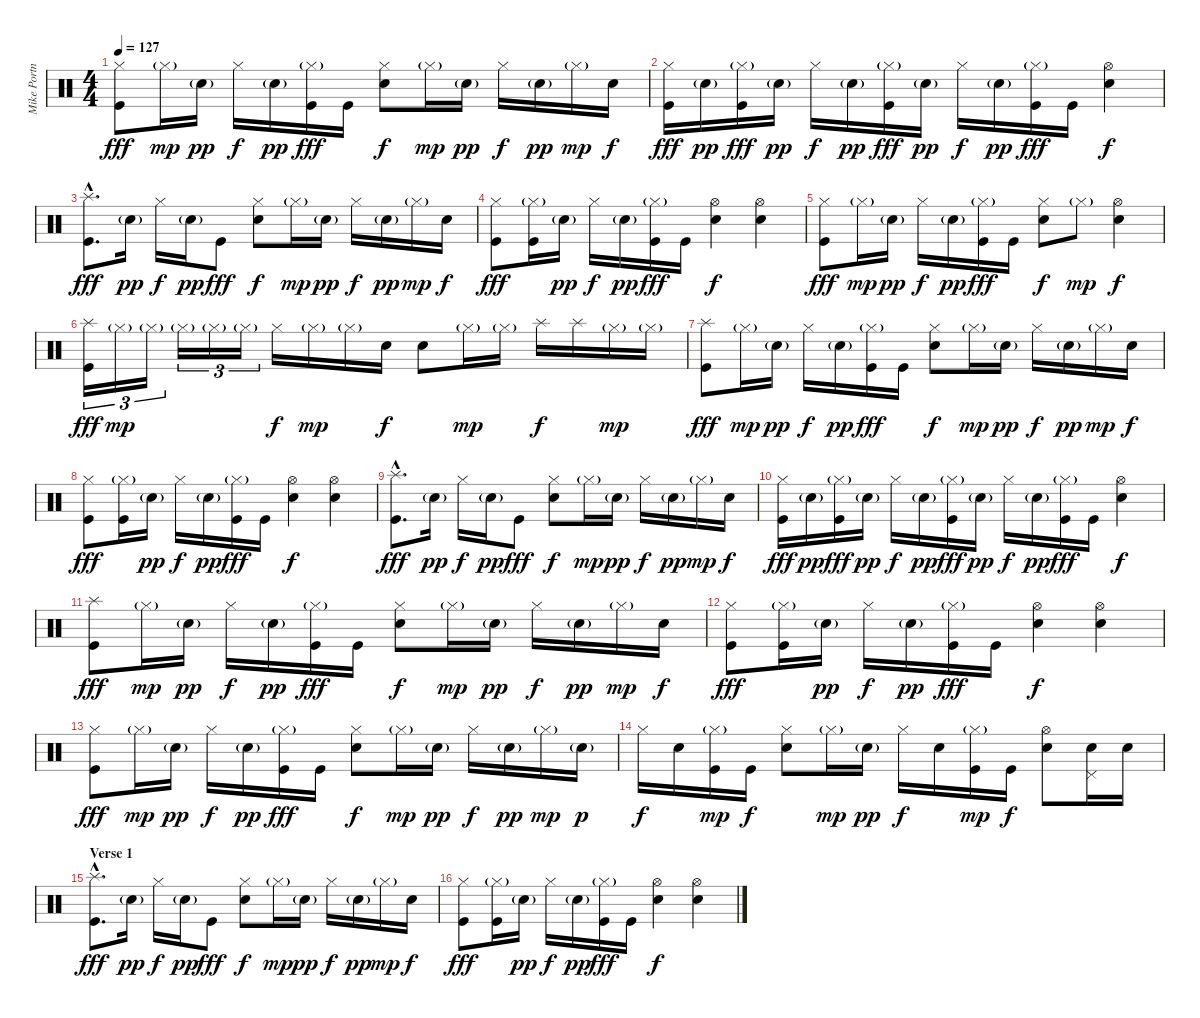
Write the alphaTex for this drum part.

\track ("Mike Portnoy" "Mike Portn") {instrument percussion}
\staff {score}
\articulation defaults
\ts (4 4)
\tempo 127
\clef neutral
\ks c
("Hi-Hat (closed)" "Kick (hit)").8{dy fff} "Hi-Hat (closed)"{g}.16{dy mp} "Electric Snare (hit)"{g}.16{dy pp} "Hi-Hat (closed)".16{dy f} "Electric Snare (hit)"{g}.16{dy pp} ("Hi-Hat (closed)"{g} "Kick (hit)").16{dy fff} "Kick (hit)".16 ("Hi-Hat (closed)" "Electric Snare (hit)").8{dy f} "Hi-Hat (closed)"{g}.16{dy mp} "Electric Snare (hit)"{g}.16{dy pp} "Hi-Hat (closed)".16{dy f} "Electric Snare (hit)"{g}.16{dy pp} "Hi-Hat (closed)"{g}.16{dy mp} "Electric Snare (hit)".16{dy f} |
("Hi-Hat (closed)" "Kick (hit)").16{dy fff} "Electric Snare (hit)"{g}.16{dy pp} ("Hi-Hat (closed)"{g} "Kick (hit)").16{dy fff} "Electric Snare (hit)"{g}.16{dy pp} "Hi-Hat (closed)".16{dy f} "Electric Snare (hit)"{g}.16{dy pp} ("Hi-Hat (closed)"{g} "Kick (hit)").16{dy fff} "Electric Snare (hit)"{g}.16{dy pp} "Hi-Hat (closed)".16{dy f} "Electric Snare (hit)"{g}.16{dy pp} ("Hi-Hat (closed)"{g} "Kick (hit)").16{dy fff} "Kick (hit)".16 ("Hi-Hat (open)" "Electric Snare (hit)").4{dy f} |
("Splash (hit)"{hac} "Kick (hit)"{hac}).8{d dy fff} "Electric Snare (hit)"{g}.16{dy pp} "Hi-Hat (closed)".16{dy f} "Electric Snare (hit)"{g}.16{dy pp} "Kick (hit)".8{dy fff} ("Hi-Hat (closed)" "Electric Snare (hit)").8{dy f} "Hi-Hat (closed)"{g}.16{dy mp} "Electric Snare (hit)"{g}.16{dy pp} "Hi-Hat (closed)".16{dy f} "Electric Snare (hit)"{g}.16{dy pp} "Hi-Hat (closed)"{g}.16{dy mp} "Electric Snare (hit)".16{dy f} |
("Hi-Hat (closed)" "Kick (hit)").8{dy fff} ("Hi-Hat (closed)"{g} "Kick (hit)").16 "Electric Snare (hit)"{g}.16{dy pp} "Hi-Hat (closed)".16{dy f} "Electric Snare (hit)"{g}.16{dy pp} ("Hi-Hat (closed)"{g} "Kick (hit)").16{dy fff} "Kick (hit)".16 ("Hi-Hat (open)" "Electric Snare (hit)").4{dy f} ("Hi-Hat (open)" "Electric Snare (hit)").4 |
("Hi-Hat (closed)" "Kick (hit)").8{dy fff} "Hi-Hat (closed)"{g}.16{dy mp} "Electric Snare (hit)"{g}.16{dy pp} "Hi-Hat (closed)".16{dy f} "Electric Snare (hit)"{g}.16{dy pp} ("Hi-Hat (closed)"{g} "Kick (hit)").16{dy fff} "Kick (hit)".16 ("Hi-Hat (closed)" "Electric Snare (hit)").8{dy f} "Hi-Hat (closed)"{g}.8{dy mp} ("Hi-Hat (open)" "Electric Snare (hit)").4{dy f} |
("Splash (hit)" "Kick (hit)").16{tu (3 2) dy fff} "Hi-Hat (closed)"{g}.16{tu (3 2) dy mp} "Hi-Hat (closed)"{g}.16{tu (3 2)} "Hi-Hat (closed)"{g}.16{tu (3 2)} "Hi-Hat (closed)"{g}.16{tu (3 2)} "Hi-Hat (closed)"{g}.16{tu (3 2)} "Hi-Hat (closed)".16{dy f} "Hi-Hat (closed)"{g}.16{dy mp} "Hi-Hat (closed)"{g}.16 "Electric Snare (hit)".16{dy f} "Electric Snare (hit)".8 "Hi-Hat (closed)"{g}.16{dy mp} "Hi-Hat (closed)"{g}.16 "Splash (hit)".16{dy f} "Splash (hit)".16 "Hi-Hat (closed)"{g}.16{dy mp} "Hi-Hat (closed)"{g}.16 |
("Splash (hit)" "Kick (hit)").8{dy fff} "Hi-Hat (closed)"{g}.16{dy mp} "Electric Snare (hit)"{g}.16{dy pp} "Hi-Hat (closed)".16{dy f} "Electric Snare (hit)"{g}.16{dy pp} ("Hi-Hat (closed)"{g} "Kick (hit)").16{dy fff} "Kick (hit)".16 ("Hi-Hat (closed)" "Electric Snare (hit)").8{dy f} "Hi-Hat (closed)"{g}.16{dy mp} "Electric Snare (hit)"{g}.16{dy pp} "Hi-Hat (closed)".16{dy f} "Electric Snare (hit)"{g}.16{dy pp} "Hi-Hat (closed)"{g}.16{dy mp} "Electric Snare (hit)".16{dy f} |
("Hi-Hat (closed)" "Kick (hit)").8{dy fff} ("Hi-Hat (closed)"{g} "Kick (hit)").16 "Electric Snare (hit)"{g}.16{dy pp} "Hi-Hat (closed)".16{dy f} "Electric Snare (hit)"{g}.16{dy pp} ("Hi-Hat (closed)"{g} "Kick (hit)").16{dy fff} "Kick (hit)".16 ("Hi-Hat (open)" "Electric Snare (hit)").4{dy f} ("Hi-Hat (open)" "Electric Snare (hit)").4 |
("Splash (hit)"{hac} "Kick (hit)"{hac}).8{d dy fff} "Electric Snare (hit)"{g}.16{dy pp} "Hi-Hat (closed)".16{dy f} "Electric Snare (hit)"{g}.16{dy pp} "Kick (hit)".8{dy fff} ("Hi-Hat (closed)" "Electric Snare (hit)").8{dy f} "Hi-Hat (closed)"{g}.16{dy mp} "Electric Snare (hit)"{g}.16{dy pp} "Hi-Hat (closed)".16{dy f} "Electric Snare (hit)"{g}.16{dy pp} "Hi-Hat (closed)"{g}.16{dy mp} "Electric Snare (hit)".16{dy f} |
("Hi-Hat (closed)" "Kick (hit)").16{dy fff} "Electric Snare (hit)"{g}.16{dy pp} ("Hi-Hat (closed)"{g} "Kick (hit)").16{dy fff} "Electric Snare (hit)"{g}.16{dy pp} "Hi-Hat (closed)".16{dy f} "Electric Snare (hit)"{g}.16{dy pp} ("Hi-Hat (closed)"{g} "Kick (hit)").16{dy fff} "Electric Snare (hit)"{g}.16{dy pp} "Hi-Hat (closed)".16{dy f} "Electric Snare (hit)"{g}.16{dy pp} ("Hi-Hat (closed)"{g} "Kick (hit)").16{dy fff} "Kick (hit)".16 ("Hi-Hat (open)" "Electric Snare (hit)").4{dy f} |
("Splash (hit)" "Kick (hit)").8{dy fff} "Hi-Hat (closed)"{g}.16{dy mp} "Electric Snare (hit)"{g}.16{dy pp} "Hi-Hat (closed)".16{dy f} "Electric Snare (hit)"{g}.16{dy pp} ("Hi-Hat (closed)"{g} "Kick (hit)").16{dy fff} "Kick (hit)".16 ("Hi-Hat (closed)" "Electric Snare (hit)").8{dy f} "Hi-Hat (closed)"{g}.16{dy mp} "Electric Snare (hit)"{g}.16{dy pp} "Hi-Hat (closed)".16{dy f} "Electric Snare (hit)"{g}.16{dy pp} "Hi-Hat (closed)"{g}.16{dy mp} "Electric Snare (hit)".16{dy f} |
("Hi-Hat (closed)" "Kick (hit)").8{dy fff} ("Hi-Hat (closed)"{g} "Kick (hit)").16 "Electric Snare (hit)"{g}.16{dy pp} "Hi-Hat (closed)".16{dy f} "Electric Snare (hit)"{g}.16{dy pp} ("Hi-Hat (closed)"{g} "Kick (hit)").16{dy fff} "Kick (hit)".16 ("Hi-Hat (open)" "Electric Snare (hit)").4{dy f} ("Hi-Hat (open)" "Electric Snare (hit)").4 |
("Hi-Hat (closed)" "Kick (hit)").8{dy fff} "Hi-Hat (closed)"{g}.16{dy mp} "Electric Snare (hit)"{g}.16{dy pp} "Hi-Hat (closed)".16{dy f} "Electric Snare (hit)"{g}.16{dy pp} ("Hi-Hat (closed)"{g} "Kick (hit)").16{dy fff} "Kick (hit)".16 ("Hi-Hat (closed)" "Electric Snare (hit)").8{dy f} "Hi-Hat (closed)"{g}.16{dy mp} "Electric Snare (hit)"{g}.16{dy pp} "Hi-Hat (closed)".16{dy f} "Electric Snare (hit)"{g}.16{dy pp} "Hi-Hat (closed)"{g}.16{dy mp} "Electric Snare (hit)"{g}.16{dy p} |
"Hi-Hat (closed)".16{dy f} "Electric Snare (hit)".16 ("Hi-Hat (closed)"{g} "Kick (hit)").16{dy mp} "Kick (hit)".16{dy f} ("Hi-Hat (closed)" "Electric Snare (hit)").8 "Hi-Hat (closed)"{g}.16{dy mp} "Electric Snare (hit)"{g}.16{dy pp} "Hi-Hat (closed)".16{dy f} "Electric Snare (hit)".16 ("Hi-Hat (closed)"{g} "Kick (hit)").16{dy mp} "Kick (hit)".16{dy f} ("Hi-Hat (open)" "Electric Snare (hit)").8 ("Electric Snare (hit)" "Pedal Hi-Hat (hit)").16 "Electric Snare (hit)".16 |
\section ("" "Verse 1")
("Splash (hit)"{hac} "Kick (hit)"{hac}).8{d dy fff} "Electric Snare (hit)"{g}.16{dy pp} "Hi-Hat (closed)".16{dy f} "Electric Snare (hit)"{g}.16{dy pp} "Kick (hit)".8{dy fff} ("Hi-Hat (closed)" "Electric Snare (hit)").8{dy f} "Hi-Hat (closed)"{g}.16{dy mp} "Electric Snare (hit)"{g}.16{dy pp} "Hi-Hat (closed)".16{dy f} "Electric Snare (hit)"{g}.16{dy pp} "Hi-Hat (closed)"{g}.16{dy mp} "Electric Snare (hit)".16{dy f} |
("Hi-Hat (closed)" "Kick (hit)").8{dy fff} ("Hi-Hat (closed)"{g} "Kick (hit)").16 "Electric Snare (hit)"{g}.16{dy pp} "Hi-Hat (closed)".16{dy f} "Electric Snare (hit)"{g}.16{dy pp} ("Hi-Hat (closed)"{g} "Kick (hit)").16{dy fff} "Kick (hit)".16 ("Hi-Hat (open)" "Electric Snare (hit)").4{dy f} ("Hi-Hat (open)" "Electric Snare (hit)").4
